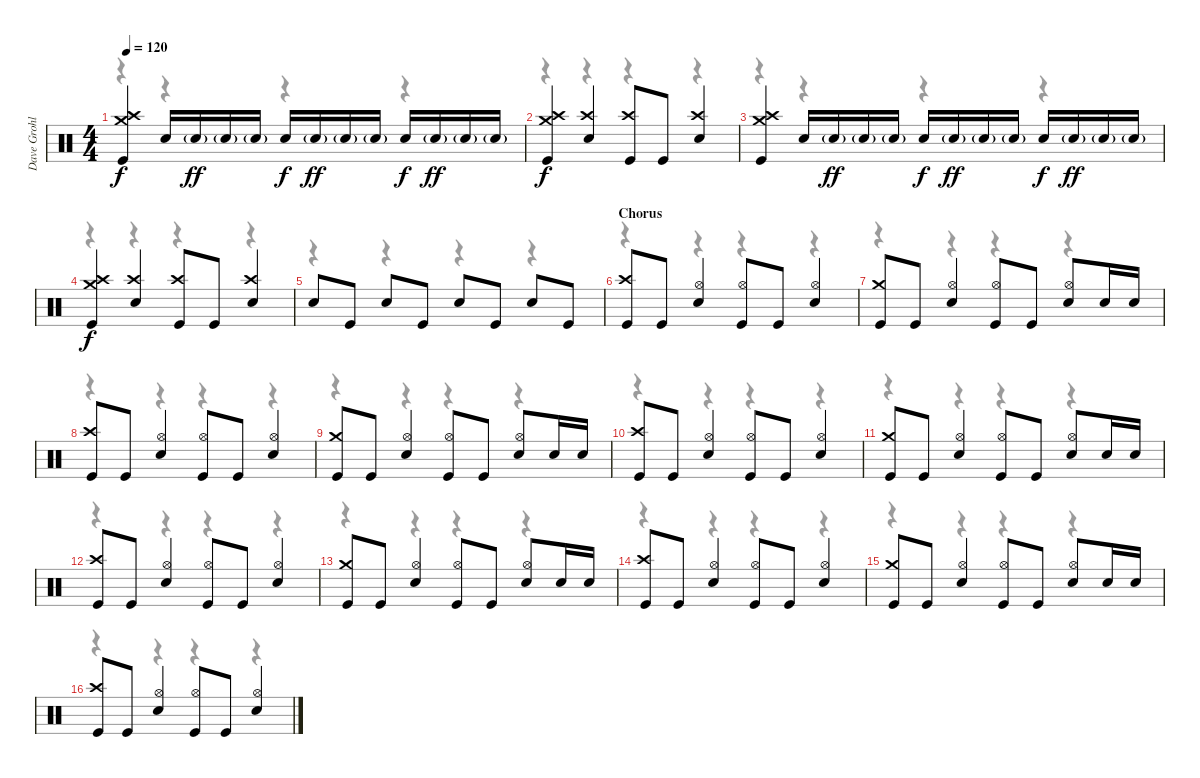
\track ("Dave Grohl" "Dave Grohl") {instrument percussion}
\staff {score}
\articulation defaults
\voice
\ts (4 4)
\tempo 120
\clef neutral
\ks c
("Crash medium (hit)" "Crash high (hit)" "Kick (hit)").4{dy f} "Snare (hit) 2".16 "Snare (hit) 2"{g}.16{dy ff} "Snare (hit) 2"{g}.16 "Snare (hit) 2"{g}.16 "Snare (hit) 2".16{dy f} "Snare (hit) 2"{g}.16{dy ff} "Snare (hit) 2"{g}.16 "Snare (hit) 2"{g}.16 "Snare (hit) 2".16{dy f} "Snare (hit) 2"{g}.16{dy ff} "Snare (hit) 2"{g}.16 "Snare (hit) 2"{g}.16 |
("Crash medium (hit)" "Crash high (hit)" "Kick (hit)").4{dy f} ("Crash high (hit)" "Snare (hit) 2").4 ("Crash high (hit)" "Kick (hit)").8 "Kick (hit)".8 ("Crash high (hit)" "Snare (hit) 2").4 |
("Crash medium (hit)" "Crash high (hit)" "Kick (hit)").4 "Snare (hit) 2".16 "Snare (hit) 2"{g}.16{dy ff} "Snare (hit) 2"{g}.16 "Snare (hit) 2"{g}.16 "Snare (hit) 2".16{dy f} "Snare (hit) 2"{g}.16{dy ff} "Snare (hit) 2"{g}.16 "Snare (hit) 2"{g}.16 "Snare (hit) 2".16{dy f} "Snare (hit) 2"{g}.16{dy ff} "Snare (hit) 2"{g}.16 "Snare (hit) 2"{g}.16 |
("Crash medium (hit)" "Crash high (hit)" "Kick (hit)").4{dy f} ("Crash high (hit)" "Snare (hit) 2").4 ("Crash high (hit)" "Kick (hit)").8 "Kick (hit)".8 ("Crash high (hit)" "Snare (hit) 2").4 |
"Snare (hit) 2".8 "Kick (hit)".8 "Snare (hit) 2".8 "Kick (hit)".8 "Snare (hit) 2".8 "Kick (hit)".8 "Snare (hit) 2".8 "Kick (hit)".8 |
\section ("" "Chorus")
("Crash high (hit)" "Kick (hit)").8 "Kick (hit)".8 ("Hi-Hat (open)" "Snare (hit) 2").4 ("Hi-Hat (open)" "Kick (hit)").8 "Kick (hit)".8 ("Hi-Hat (open)" "Snare (hit) 2").4 |
("Crash medium (hit)" "Kick (hit)").8 "Kick (hit)".8 ("Hi-Hat (open)" "Snare (hit) 2").4 ("Hi-Hat (open)" "Kick (hit)").8 "Kick (hit)".8 ("Hi-Hat (open)" "Snare (hit) 2").8 "Snare (hit) 2".16 "Snare (hit) 2".16 |
("Crash high (hit)" "Kick (hit)").8 "Kick (hit)".8 ("Hi-Hat (open)" "Snare (hit) 2").4 ("Hi-Hat (open)" "Kick (hit)").8 "Kick (hit)".8 ("Hi-Hat (open)" "Snare (hit) 2").4 |
("Crash medium (hit)" "Kick (hit)").8 "Kick (hit)".8 ("Hi-Hat (open)" "Snare (hit) 2").4 ("Hi-Hat (open)" "Kick (hit)").8 "Kick (hit)".8 ("Hi-Hat (open)" "Snare (hit) 2").8 "Snare (hit) 2".16 "Snare (hit) 2".16 |
("Crash high (hit)" "Kick (hit)").8 "Kick (hit)".8 ("Hi-Hat (open)" "Snare (hit) 2").4 ("Hi-Hat (open)" "Kick (hit)").8 "Kick (hit)".8 ("Hi-Hat (open)" "Snare (hit) 2").4 |
("Crash medium (hit)" "Kick (hit)").8 "Kick (hit)".8 ("Hi-Hat (open)" "Snare (hit) 2").4 ("Hi-Hat (open)" "Kick (hit)").8 "Kick (hit)".8 ("Hi-Hat (open)" "Snare (hit) 2").8 "Snare (hit) 2".16 "Snare (hit) 2".16 |
("Crash high (hit)" "Kick (hit)").8 "Kick (hit)".8 ("Hi-Hat (open)" "Snare (hit) 2").4 ("Hi-Hat (open)" "Kick (hit)").8 "Kick (hit)".8 ("Hi-Hat (open)" "Snare (hit) 2").4 |
("Crash medium (hit)" "Kick (hit)").8 "Kick (hit)".8 ("Hi-Hat (open)" "Snare (hit) 2").4 ("Hi-Hat (open)" "Kick (hit)").8 "Kick (hit)".8 ("Hi-Hat (open)" "Snare (hit) 2").8 "Snare (hit) 2".16 "Snare (hit) 2".16 |
("Crash high (hit)" "Kick (hit)").8 "Kick (hit)".8 ("Hi-Hat (open)" "Snare (hit) 2").4 ("Hi-Hat (open)" "Kick (hit)").8 "Kick (hit)".8 ("Hi-Hat (open)" "Snare (hit) 2").4 |
("Crash medium (hit)" "Kick (hit)").8 "Kick (hit)".8 ("Hi-Hat (open)" "Snare (hit) 2").4 ("Hi-Hat (open)" "Kick (hit)").8 "Kick (hit)".8 ("Hi-Hat (open)" "Snare (hit) 2").8 "Snare (hit) 2".16 "Snare (hit) 2".16 |
("Crash high (hit)" "Kick (hit)").8 "Kick (hit)".8 ("Hi-Hat (open)" "Snare (hit) 2").4 ("Hi-Hat (open)" "Kick (hit)").8 "Kick (hit)".8 ("Hi-Hat (open)" "Snare (hit) 2").4
\voice
\clef neutral
\ottava regular
\simile none
\ks c
r.4{dy f} r.4 r.4 r.4 |
r.4 r.4 r.4 r.4 |
r.4 r.4 r.4 r.4 |
r.4 r.4 r.4 r.4 |
r.4 r.4 r.4 r.4 |
r.4 r.4 r.4 r.4 |
r.4 r.4 r.4 r.4 |
r.4 r.4 r.4 r.4 |
r.4 r.4 r.4 r.4 |
r.4 r.4 r.4 r.4 |
r.4 r.4 r.4 r.4 |
r.4 r.4 r.4 r.4 |
r.4 r.4 r.4 r.4 |
r.4 r.4 r.4 r.4 |
r.4 r.4 r.4 r.4 |
r.4 r.4 r.4 r.4
